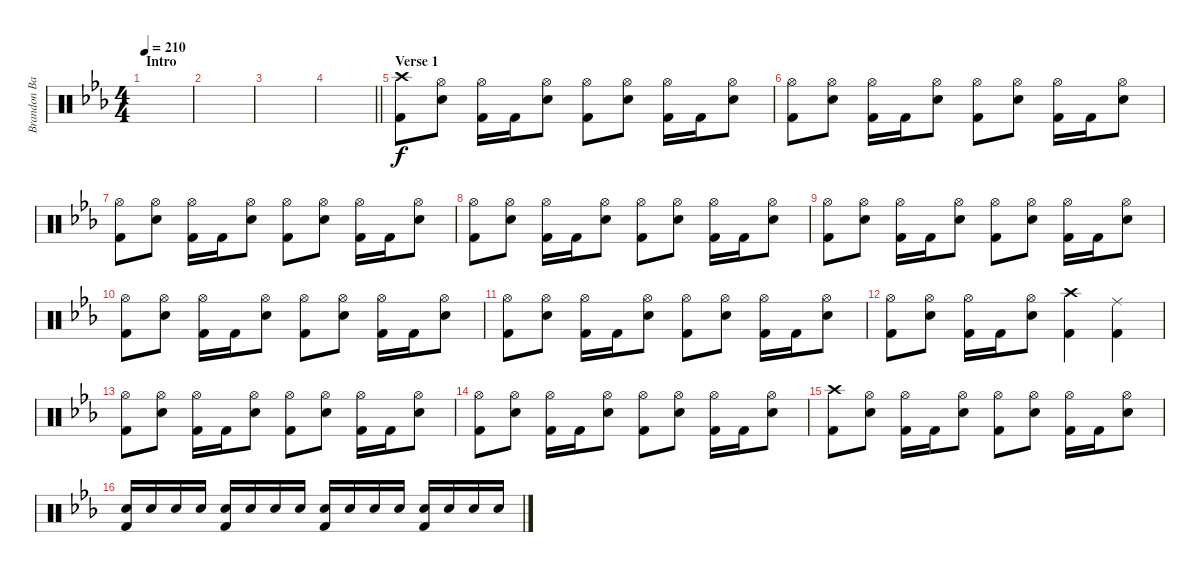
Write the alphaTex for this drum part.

\track ("Brandon Barnes" "Brandon Ba") {instrument percussion}
\staff {score}
\articulation defaults
\ts (4 4)
\section ("" "Intro")
\tempo 210
\clef neutral
\ks eb
|
|
|
\barLineRight lightlight
|
\section ("" "Verse 1")
("Crash high (hit)" "Kick (hit) 2").8 ("Hi-Hat (open)" "Snare (hit) 2").8 ("Hi-Hat (open)" "Kick (hit) 2").16 "Kick (hit) 2".16 ("Hi-Hat (open)" "Snare (hit) 2").8 ("Hi-Hat (open)" "Kick (hit) 2").8 ("Hi-Hat (open)" "Snare (hit) 2").8 ("Hi-Hat (open)" "Kick (hit) 2").16 "Kick (hit) 2".16 ("Hi-Hat (open)" "Snare (hit) 2").8 |
("Hi-Hat (open)" "Kick (hit) 2").8 ("Hi-Hat (open)" "Snare (hit) 2").8 ("Hi-Hat (open)" "Kick (hit) 2").16 "Kick (hit) 2".16 ("Hi-Hat (open)" "Snare (hit) 2").8 ("Hi-Hat (open)" "Kick (hit) 2").8 ("Hi-Hat (open)" "Snare (hit) 2").8 ("Hi-Hat (open)" "Kick (hit) 2").16 "Kick (hit) 2".16 ("Hi-Hat (open)" "Snare (hit) 2").8 |
("Hi-Hat (open)" "Kick (hit) 2").8 ("Hi-Hat (open)" "Snare (hit) 2").8 ("Hi-Hat (open)" "Kick (hit) 2").16 "Kick (hit) 2".16 ("Hi-Hat (open)" "Snare (hit) 2").8 ("Hi-Hat (open)" "Kick (hit) 2").8 ("Hi-Hat (open)" "Snare (hit) 2").8 ("Hi-Hat (open)" "Kick (hit) 2").16 "Kick (hit) 2".16 ("Hi-Hat (open)" "Snare (hit) 2").8 |
("Hi-Hat (open)" "Kick (hit) 2").8 ("Hi-Hat (open)" "Snare (hit) 2").8 ("Hi-Hat (open)" "Kick (hit) 2").16 "Kick (hit) 2".16 ("Hi-Hat (open)" "Snare (hit) 2").8 ("Hi-Hat (open)" "Kick (hit) 2").8 ("Hi-Hat (open)" "Snare (hit) 2").8 ("Hi-Hat (open)" "Kick (hit) 2").16 "Kick (hit) 2".16 ("Hi-Hat (open)" "Snare (hit) 2").8 |
("Hi-Hat (open)" "Kick (hit) 2").8 ("Hi-Hat (open)" "Snare (hit) 2").8 ("Hi-Hat (open)" "Kick (hit) 2").16 "Kick (hit) 2".16 ("Hi-Hat (open)" "Snare (hit) 2").8 ("Hi-Hat (open)" "Kick (hit) 2").8 ("Hi-Hat (open)" "Snare (hit) 2").8 ("Hi-Hat (open)" "Kick (hit) 2").16 "Kick (hit) 2".16 ("Hi-Hat (open)" "Snare (hit) 2").8 |
("Hi-Hat (open)" "Kick (hit) 2").8 ("Hi-Hat (open)" "Snare (hit) 2").8 ("Hi-Hat (open)" "Kick (hit) 2").16 "Kick (hit) 2".16 ("Hi-Hat (open)" "Snare (hit) 2").8 ("Hi-Hat (open)" "Kick (hit) 2").8 ("Hi-Hat (open)" "Snare (hit) 2").8 ("Hi-Hat (open)" "Kick (hit) 2").16 "Kick (hit) 2".16 ("Hi-Hat (open)" "Snare (hit) 2").8 |
("Hi-Hat (open)" "Kick (hit) 2").8 ("Hi-Hat (open)" "Snare (hit) 2").8 ("Hi-Hat (open)" "Kick (hit) 2").16 "Kick (hit) 2".16 ("Hi-Hat (open)" "Snare (hit) 2").8 ("Hi-Hat (open)" "Kick (hit) 2").8 ("Hi-Hat (open)" "Snare (hit) 2").8 ("Hi-Hat (open)" "Kick (hit) 2").16 "Kick (hit) 2".16 ("Hi-Hat (open)" "Snare (hit) 2").8 |
("Hi-Hat (open)" "Kick (hit) 2").8 ("Hi-Hat (open)" "Snare (hit) 2").8 ("Hi-Hat (open)" "Kick (hit) 2").16 "Kick (hit) 2".16 ("Hi-Hat (open)" "Snare (hit) 2").8 ("Crash high (hit)" "Kick (hit) 2").4 ("Ride (middle)" "Kick (hit) 2").4 |
("Hi-Hat (open)" "Kick (hit) 2").8 ("Hi-Hat (open)" "Snare (hit) 2").8 ("Hi-Hat (open)" "Kick (hit) 2").16 "Kick (hit) 2".16 ("Hi-Hat (open)" "Snare (hit) 2").8 ("Hi-Hat (open)" "Kick (hit) 2").8 ("Hi-Hat (open)" "Snare (hit) 2").8 ("Hi-Hat (open)" "Kick (hit) 2").16 "Kick (hit) 2".16 ("Hi-Hat (open)" "Snare (hit) 2").8 |
("Hi-Hat (open)" "Kick (hit) 2").8 ("Hi-Hat (open)" "Snare (hit) 2").8 ("Hi-Hat (open)" "Kick (hit) 2").16 "Kick (hit) 2".16 ("Hi-Hat (open)" "Snare (hit) 2").8 ("Hi-Hat (open)" "Kick (hit) 2").8 ("Hi-Hat (open)" "Snare (hit) 2").8 ("Hi-Hat (open)" "Kick (hit) 2").16 "Kick (hit) 2".16 ("Hi-Hat (open)" "Snare (hit) 2").8 |
("Crash high (hit)" "Kick (hit) 2").8 ("Hi-Hat (open)" "Snare (hit) 2").8 ("Hi-Hat (open)" "Kick (hit) 2").16 "Kick (hit) 2".16 ("Hi-Hat (open)" "Snare (hit) 2").8 ("Hi-Hat (open)" "Kick (hit) 2").8 ("Hi-Hat (open)" "Snare (hit) 2").8 ("Hi-Hat (open)" "Kick (hit) 2").16 "Kick (hit) 2".16 ("Hi-Hat (open)" "Snare (hit) 2").8 |
("Snare (hit) 2" "Kick (hit) 2").16 "Snare (hit) 2".16 "Snare (hit) 2".16 "Snare (hit) 2".16 ("Snare (hit) 2" "Kick (hit) 2").16 "Snare (hit) 2".16 "Snare (hit) 2".16 "Snare (hit) 2".16 ("Snare (hit) 2" "Kick (hit) 2").16 "Snare (hit) 2".16 "Snare (hit) 2".16 "Snare (hit) 2".16 ("Snare (hit) 2" "Kick (hit) 2").16 "Snare (hit) 2".16 "Snare (hit) 2".16 "Snare (hit) 2".16
